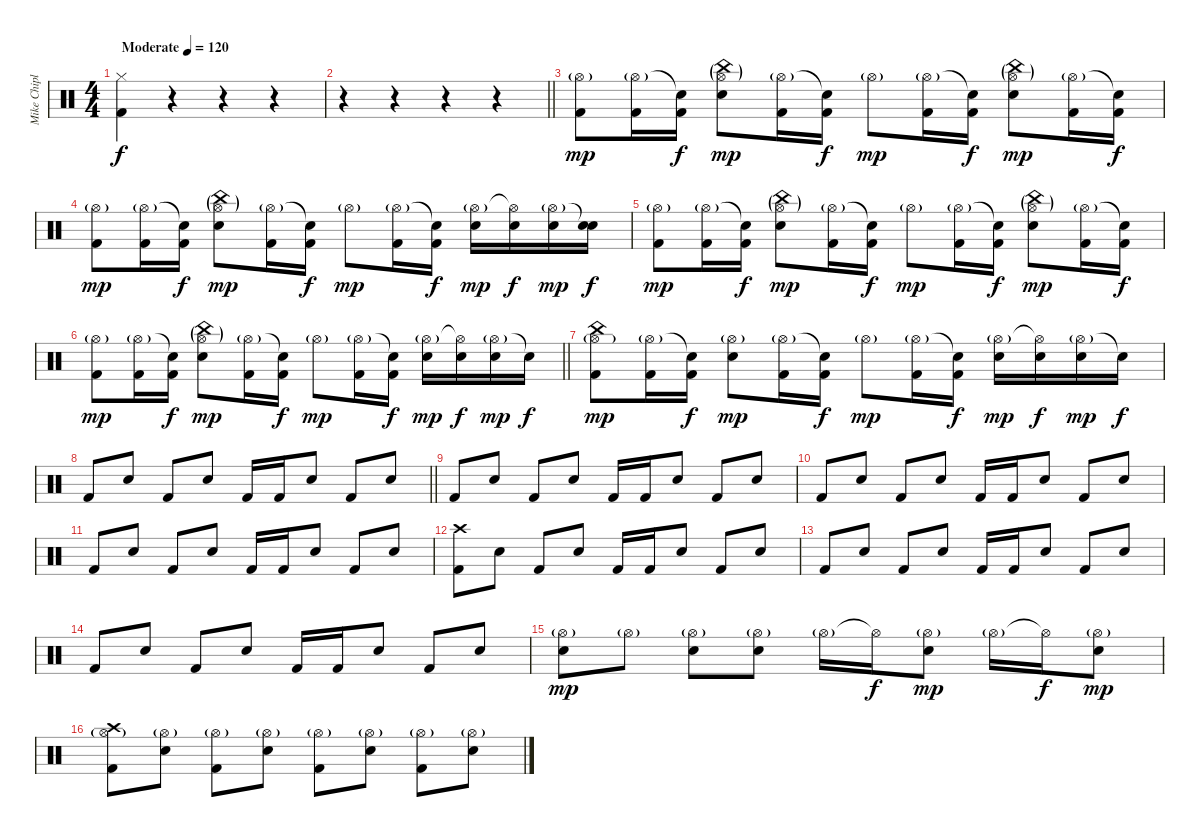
\track ("Mike Chiplin" "Mike Chipl") {instrument percussion}
\staff {score}
\articulation defaults
\ts (4 4)
\tempo (120 "Moderate")
\clef neutral
\ks c
("Hi-Hat (closed)" "Kick (hit) 2").4{dy f} r.4 r.4 r.4 |
\barLineRight lightlight
r.4 r.4 r.4 r.4 |
("Hi-Hat (open)"{g} "Kick (hit) 2").8{dy mp} ("Hi-Hat (open)"{g} "Kick (hit) 2").16 ("Snare (hit)"{t} "Kick (hit) 2").16{dy f} ("China (hit)"{g} "Hi-Hat (open)"{g} "Electric Snare (hit)").8{dy mp} ("Hi-Hat (open)"{g} "Kick (hit) 2").16 ("Snare (hit)"{t} "Kick (hit) 2").16{dy f} "Hi-Hat (open)"{g}.8{dy mp} ("Hi-Hat (open)"{g} "Kick (hit) 2").16 ("Snare (hit)"{t} "Kick (hit) 2").16{dy f} ("China (hit)"{g} "Hi-Hat (open)"{g} "Electric Snare (hit)").8{dy mp} ("Hi-Hat (open)"{g} "Kick (hit) 2").16 ("Snare (hit)"{t} "Kick (hit) 2").16{dy f} |
("Hi-Hat (open)"{g} "Kick (hit) 2").8{dy mp} ("Hi-Hat (open)"{g} "Kick (hit) 2").16 ("Snare (hit)"{t} "Kick (hit) 2").16{dy f} ("China (hit)"{g} "Hi-Hat (open)"{g} "Electric Snare (hit)").8{dy mp} ("Hi-Hat (open)"{g} "Kick (hit) 2").16 ("Snare (hit)"{t} "Kick (hit) 2").16{dy f} "Hi-Hat (open)"{g}.8{dy mp} ("Hi-Hat (open)"{g} "Kick (hit) 2").16 ("Snare (hit)"{t} "Kick (hit) 2").16{dy f} ("Hi-Hat (open)"{g} "Electric Snare (hit)").16{dy mp} ("Hi-Hat (open)"{t} "Electric Snare (hit)").16{dy f} ("Hi-Hat (open)"{g} "Electric Snare (hit)").16{dy mp} ("Snare (hit)"{t} "Electric Snare (hit)").16{dy f} |
("Hi-Hat (open)"{g} "Kick (hit) 2").8{dy mp} ("Hi-Hat (open)"{g} "Kick (hit) 2").16 ("Snare (hit)"{t} "Kick (hit) 2").16{dy f} ("China (hit)"{g} "Hi-Hat (open)"{g} "Electric Snare (hit)").8{dy mp} ("Hi-Hat (open)"{g} "Kick (hit) 2").16 ("Snare (hit)"{t} "Kick (hit) 2").16{dy f} "Hi-Hat (open)"{g}.8{dy mp} ("Hi-Hat (open)"{g} "Kick (hit) 2").16 ("Snare (hit)"{t} "Kick (hit) 2").16{dy f} ("China (hit)"{g} "Hi-Hat (open)"{g} "Electric Snare (hit)").8{dy mp} ("Hi-Hat (open)"{g} "Kick (hit) 2").16 ("Snare (hit)"{t} "Kick (hit) 2").16{dy f} |
\barLineRight lightlight
("Hi-Hat (open)"{g} "Kick (hit) 2").8{dy mp} ("Hi-Hat (open)"{g} "Kick (hit) 2").16 ("Snare (hit)"{t} "Kick (hit) 2").16{dy f} ("China (hit)"{g} "Hi-Hat (open)"{g} "Electric Snare (hit)").8{dy mp} ("Hi-Hat (open)"{g} "Kick (hit) 2").16 ("Snare (hit)"{t} "Kick (hit) 2").16{dy f} "Hi-Hat (open)"{g}.8{dy mp} ("Hi-Hat (open)"{g} "Kick (hit) 2").16 ("Snare (hit)"{t} "Kick (hit) 2").16{dy f} ("Hi-Hat (open)"{g} "Electric Snare (hit)").16{dy mp} ("Hi-Hat (open)"{t} "Electric Snare (hit)").16{dy f} ("Hi-Hat (open)"{g} "Electric Snare (hit)").16{dy mp} "Snare (hit)"{t}.16{dy f} |
("China (hit)" "Hi-Hat (open)"{g} "Kick (hit) 2").8{dy mp} ("Hi-Hat (open)"{g} "Kick (hit) 2").16 ("Snare (hit)"{t} "Kick (hit) 2").16{dy f} ("Hi-Hat (open)"{g} "Electric Snare (hit)").8{dy mp} ("Hi-Hat (open)"{g} "Kick (hit) 2").16 ("Snare (hit)"{t} "Kick (hit) 2").16{dy f} "Hi-Hat (open)"{g}.8{dy mp} ("Hi-Hat (open)"{g} "Kick (hit) 2").16 ("Snare (hit)"{t} "Kick (hit) 2").16{dy f} ("Hi-Hat (open)"{g} "Electric Snare (hit)").16{dy mp} ("Hi-Hat (open)"{t} "Electric Snare (hit)").16{dy f} ("Hi-Hat (open)"{g} "Electric Snare (hit)").16{dy mp} "Snare (hit)"{t}.16{dy f} |
\barLineRight lightlight "Kick (hit) 2".8 "Electric Snare (hit)".8 "Kick (hit) 2".8 "Electric Snare (hit)".8 "Kick (hit) 2".16 "Kick (hit) 2".16 "Electric Snare (hit)".8 "Kick (hit) 2".8 "Electric Snare (hit)".8
|
"Kick (hit) 2".8 "Electric Snare (hit)".8 "Kick (hit) 2".8 "Electric Snare (hit)".8 "Kick (hit) 2".16 "Kick (hit) 2".16 "Electric Snare (hit)".8 "Kick (hit) 2".8 "Electric Snare (hit)".8 |
"Kick (hit) 2".8 "Electric Snare (hit)".8 "Kick (hit) 2".8 "Electric Snare (hit)".8 "Kick (hit) 2".16 "Kick (hit) 2".16 "Electric Snare (hit)".8 "Kick (hit) 2".8 "Electric Snare (hit)".8 |
"Kick (hit) 2".8 "Electric Snare (hit)".8 "Kick (hit) 2".8 "Electric Snare (hit)".8 "Kick (hit) 2".16 "Kick (hit) 2".16 "Electric Snare (hit)".8 "Kick (hit) 2".8 "Electric Snare (hit)".8 |
("Crash high (hit)" "Kick (hit) 2").8 "Electric Snare (hit)".8 "Kick (hit) 2".8 "Electric Snare (hit)".8 "Kick (hit) 2".16 "Kick (hit) 2".16 "Electric Snare (hit)".8 "Kick (hit) 2".8 "Electric Snare (hit)".8 |
"Kick (hit) 2".8 "Electric Snare (hit)".8 "Kick (hit) 2".8 "Electric Snare (hit)".8 "Kick (hit) 2".16 "Kick (hit) 2".16 "Electric Snare (hit)".8 "Kick (hit) 2".8 "Electric Snare (hit)".8 |
"Kick (hit) 2".8 "Electric Snare (hit)".8 "Kick (hit) 2".8 "Electric Snare (hit)".8 "Kick (hit) 2".16 "Kick (hit) 2".16 "Electric Snare (hit)".8 "Kick (hit) 2".8 "Electric Snare (hit)".8 |
("Hi-Hat (open)"{g} "Electric Snare (hit)").8{dy mp} "Hi-Hat (open)"{g}.8 ("Hi-Hat (open)"{g} "Electric Snare (hit)").8 ("Hi-Hat (open)"{g} "Electric Snare (hit)").8 "Hi-Hat (open)"{g}.16 "Hi-Hat (open)"{t}.16{dy f} ("Hi-Hat (open)"{g} "Electric Snare (hit)").8{dy mp} "Hi-Hat (open)"{g}.16 "Hi-Hat (open)"{t}.16{dy f} ("Hi-Hat (open)"{g} "Electric Snare (hit)").8{dy mp} |
("Crash high (hit)" "Hi-Hat (open)"{g} "Kick (hit) 2").8 ("Hi-Hat (open)"{g} "Electric Snare (hit)").8 ("Hi-Hat (open)"{g} "Kick (hit) 2").8 ("Hi-Hat (open)"{g} "Electric Snare (hit)").8 ("Hi-Hat (open)"{g} "Kick (hit) 2").8 ("Hi-Hat (open)"{g} "Electric Snare (hit)").8 ("Hi-Hat (open)"{g} "Kick (hit) 2").8 ("Hi-Hat (open)"{g} "Electric Snare (hit)").8
